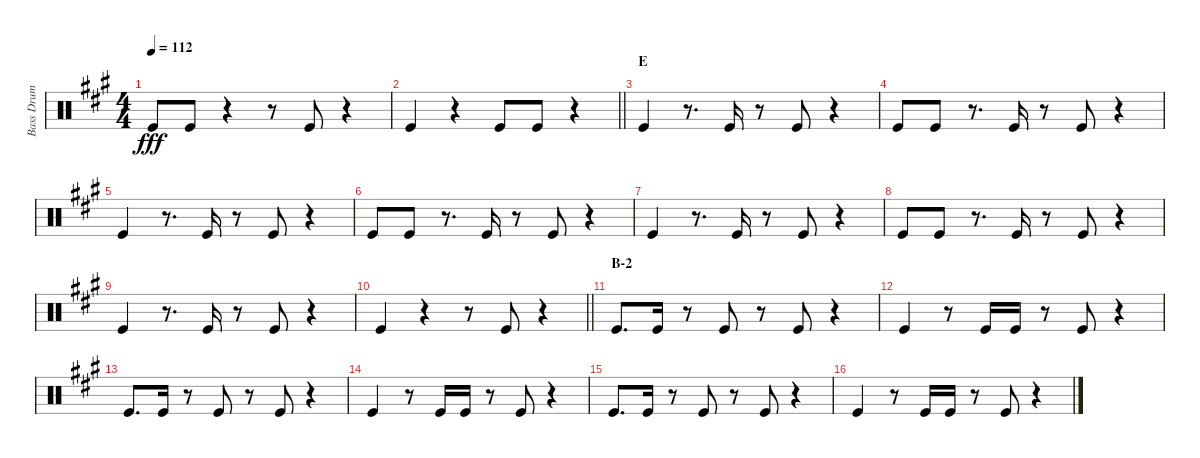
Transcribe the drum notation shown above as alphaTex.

\track ("Bass Drum" "Bass Drum") {instrument percussion}
\staff {score}
\articulation defaults
\ts (4 4)
\tempo 112
\clef neutral
\ks a "Kick (hit)".8{dy fff} "Kick (hit)".8
r.4 r.8 "Kick (hit)".8 r.4 |
\barLineRight lightlight "Kick (hit)".4
r.4 "Kick (hit)".8 "Kick (hit)".8 r.4 |
\section ("" "E")
"Kick (hit)".4 r.8{d} "Kick (hit)".16 r.8 "Kick (hit)".8 r.4 |
"Kick (hit)".8 "Kick (hit)".8 r.8{d} "Kick (hit)".16 r.8 "Kick (hit)".8 r.4 |
"Kick (hit)".4 r.8{d} "Kick (hit)".16 r.8 "Kick (hit)".8 r.4 |
"Kick (hit)".8 "Kick (hit)".8 r.8{d} "Kick (hit)".16 r.8 "Kick (hit)".8 r.4 |
"Kick (hit)".4 r.8{d} "Kick (hit)".16 r.8 "Kick (hit)".8 r.4 |
"Kick (hit)".8 "Kick (hit)".8 r.8{d} "Kick (hit)".16 r.8 "Kick (hit)".8 r.4 |
"Kick (hit)".4 r.8{d} "Kick (hit)".16 r.8 "Kick (hit)".8 r.4 |
\barLineRight lightlight "Kick (hit)".4
r.4 r.8 "Kick (hit)".8 r.4 |
\section ("" "B-2")
"Kick (hit)".8{d} "Kick (hit)".16 r.8 "Kick (hit)".8 r.8 "Kick (hit)".8 r.4 |
"Kick (hit)".4 r.8 "Kick (hit)".16 "Kick (hit)".16 r.8 "Kick (hit)".8 r.4 |
"Kick (hit)".8{d} "Kick (hit)".16 r.8 "Kick (hit)".8 r.8 "Kick (hit)".8 r.4 |
"Kick (hit)".4 r.8 "Kick (hit)".16 "Kick (hit)".16 r.8 "Kick (hit)".8 r.4 |
"Kick (hit)".8{d} "Kick (hit)".16 r.8 "Kick (hit)".8 r.8 "Kick (hit)".8 r.4 |
"Kick (hit)".4 r.8 "Kick (hit)".16 "Kick (hit)".16 r.8 "Kick (hit)".8 r.4
